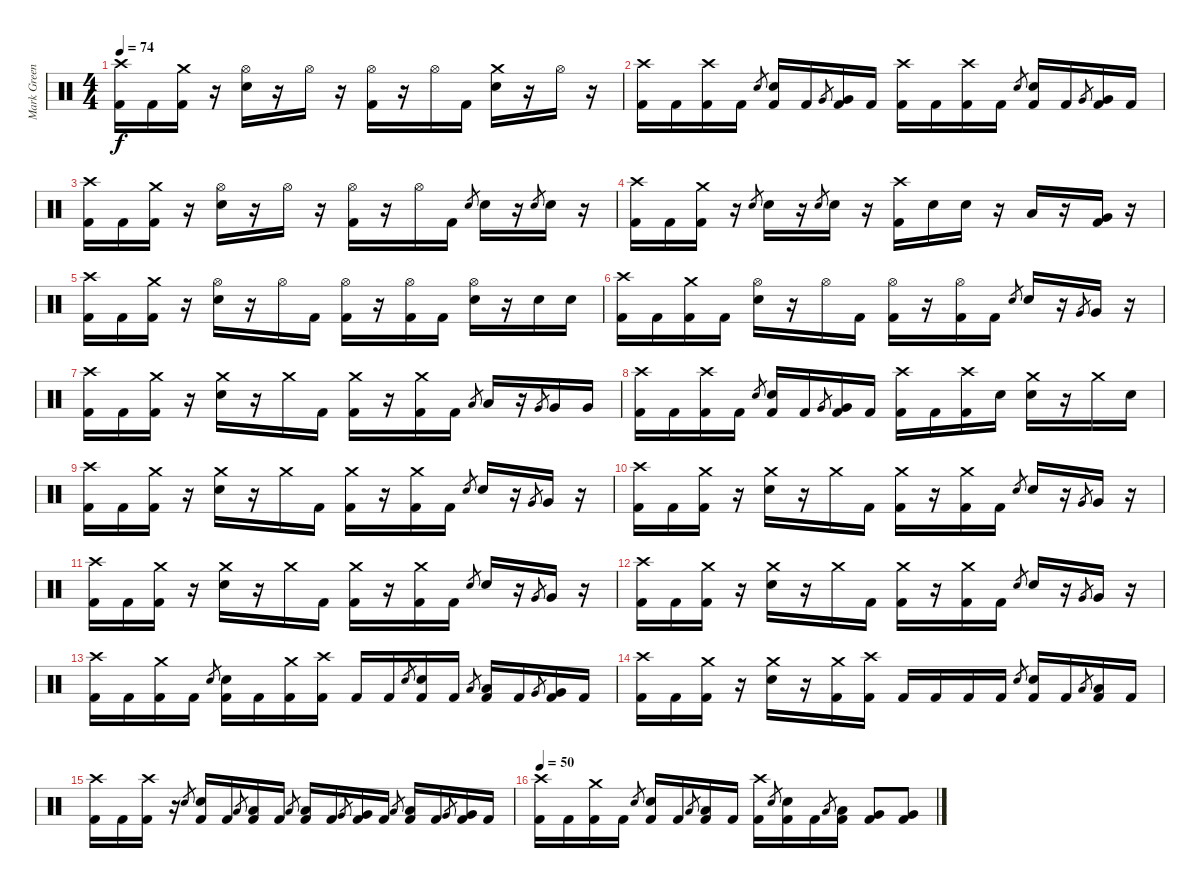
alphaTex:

\track ("Mark Greening" "Mark Green") {instrument percussion}
\staff {score}
\articulation defaults
\ts (4 4)
\tempo 74
\clef neutral
\ks c
("Crash high (hit)" "Kick (hit) 2").16{dy f} "Kick (hit) 2".16 ("Crash medium (hit)" "Kick (hit) 2").16 r.16 ("Hi-Hat (open)" "Snare (hit) 2").16 r.16 "Hi-Hat (open)".16 r.16 ("Hi-Hat (open)" "Kick (hit) 2").16 r.16 "Hi-Hat (open)".16 "Kick (hit) 2".16 ("Crash medium (hit)" "Snare (hit) 2").16 r.16 "Hi-Hat (open)".16 r.16 |
("Crash high (hit)" "Kick (hit) 2").16 "Kick (hit) 2".16 ("Crash high (hit)" "Kick (hit) 2").16 "Kick (hit) 2".16 "Snare (hit) 2".8{gr} ("Snare (hit) 2" "Kick (hit) 2").16 "Kick (hit) 2".16 "Very Low Tom (hit)".8{gr} ("Very Low Tom (hit)" "Kick (hit) 2").16 "Kick (hit) 2".16 ("Crash high (hit)" "Kick (hit) 2").16 "Kick (hit) 2".16 ("Crash high (hit)" "Kick (hit) 2").16 "Kick (hit) 2".16 "Snare (hit) 2".8{gr} ("Snare (hit) 2" "Kick (hit) 2").16 "Kick (hit) 2".16 "Very Low Tom (hit)".8{gr} ("Very Low Tom (hit)" "Kick (hit) 2").16 "Kick (hit) 2".16 |
("Crash high (hit)" "Kick (hit) 2").16 "Kick (hit) 2".16 ("Crash medium (hit)" "Kick (hit) 2").16 r.16 ("Hi-Hat (open)" "Snare (hit) 2").16 r.16 "Hi-Hat (open)".16 r.16 ("Hi-Hat (open)" "Kick (hit) 2").16 r.16 "Hi-Hat (open)".16 "Kick (hit) 2".16 "Snare (hit) 2".8{gr} "Snare (hit) 2".16 r.16 "Snare (hit) 2".8{gr} "Snare (hit) 2".16 r.16 |
("Crash high (hit)" "Kick (hit) 2").16 "Kick (hit) 2".16 ("Crash medium (hit)" "Kick (hit) 2").16 r.16 "Snare (hit) 2".8{gr} "Snare (hit) 2".16 r.16 "Snare (hit) 2".8{gr} "Snare (hit) 2".16 r.16 ("Crash high (hit)" "Kick (hit) 2").16 "Snare (hit) 2".16 "Snare (hit) 2".16 r.16 "Low Tom (hit)".16 r.16 ("Very Low Tom (hit)" "Kick (hit) 2").16 r.16 |
("Crash high (hit)" "Kick (hit) 2").16 "Kick (hit) 2".16 ("Crash medium (hit)" "Kick (hit) 2").16 r.16 ("Hi-Hat (open)" "Snare (hit) 2").16 r.16 "Hi-Hat (open)".16 "Kick (hit) 2".16 ("Hi-Hat (open)" "Kick (hit) 2").16 r.16 ("Hi-Hat (open)" "Kick (hit) 2").16 "Kick (hit) 2".16 ("Hi-Hat (open)" "Snare (hit) 2").16 r.16 "Snare (hit) 2".16 "Snare (hit) 2".16 |
("Crash high (hit)" "Kick (hit) 2").16 "Kick (hit) 2".16 ("Crash medium (hit)" "Kick (hit) 2").16 "Kick (hit) 2".16 ("Hi-Hat (open)" "Snare (hit) 2").16 r.16 "Hi-Hat (open)".16 "Kick (hit) 2".16 ("Hi-Hat (open)" "Kick (hit) 2").16 r.16 ("Hi-Hat (open)" "Kick (hit) 2").16 "Kick (hit) 2".16 "Snare (hit) 2".8{gr} "Snare (hit) 2".16 r.16 "Very Low Tom (hit)".8{gr} "Very Low Tom (hit)".16 r.16 |
("Crash high (hit)" "Kick (hit) 2").16 "Kick (hit) 2".16 ("Crash medium (hit)" "Kick (hit) 2").16 r.16 ("Crash medium (hit)" "Snare (hit) 2").16 r.16 "Crash medium (hit)".16 "Kick (hit) 2".16 ("Crash medium (hit)" "Kick (hit) 2").16 r.16 ("Crash medium (hit)" "Kick (hit) 2").16 "Kick (hit) 2".16 "Low Tom (hit)".8{gr} "Low Tom (hit)".16 r.16 "Very Low Tom (hit)".8{gr} "Very Low Tom (hit)".16 "Very Low Tom (hit)".16 |
("Crash high (hit)" "Kick (hit) 2").16 "Kick (hit) 2".16 ("Crash high (hit)" "Kick (hit) 2").16 "Kick (hit) 2".16 "Snare (hit) 2".8{gr} ("Snare (hit) 2" "Kick (hit) 2").16 "Kick (hit) 2".16 "Very Low Tom (hit)".8{gr} ("Very Low Tom (hit)" "Kick (hit) 2").16 "Kick (hit) 2".16 ("Crash high (hit)" "Kick (hit) 2").16 "Kick (hit) 2".16 ("Crash high (hit)" "Kick (hit) 2").16 "Snare (hit) 2".16 ("Crash medium (hit)" "Snare (hit) 2").16 r.16 "Crash medium (hit)".16 "Snare (hit) 2".16 |
("Crash high (hit)" "Kick (hit) 2").16 "Kick (hit) 2".16 ("Crash medium (hit)" "Kick (hit) 2").16 r.16 ("Crash medium (hit)" "Snare (hit) 2").16 r.16 "Crash medium (hit)".16 "Kick (hit) 2".16 ("Crash medium (hit)" "Kick (hit) 2").16 r.16 ("Crash medium (hit)" "Kick (hit) 2").16 "Kick (hit) 2".16 "Snare (hit) 2".8{gr} "Snare (hit) 2".16 r.16 "Very Low Tom (hit)".8{gr} "Very Low Tom (hit)".16 r.16 |
("Crash high (hit)" "Kick (hit) 2").16 "Kick (hit) 2".16 ("Crash medium (hit)" "Kick (hit) 2").16 r.16 ("Crash medium (hit)" "Snare (hit) 2").16 r.16 "Crash medium (hit)".16 "Kick (hit) 2".16 ("Crash medium (hit)" "Kick (hit) 2").16 r.16 ("Crash medium (hit)" "Kick (hit) 2").16 "Kick (hit) 2".16 "Snare (hit) 2".8{gr} "Snare (hit) 2".16 r.16 "Very Low Tom (hit)".8{gr} "Very Low Tom (hit)".16 r.16 |
("Crash high (hit)" "Kick (hit) 2").16 "Kick (hit) 2".16 ("Crash medium (hit)" "Kick (hit) 2").16 r.16 ("Crash medium (hit)" "Snare (hit) 2").16 r.16 "Crash medium (hit)".16 "Kick (hit) 2".16 ("Crash medium (hit)" "Kick (hit) 2").16 r.16 ("Crash medium (hit)" "Kick (hit) 2").16 "Kick (hit) 2".16 "Snare (hit) 2".8{gr} "Snare (hit) 2".16 r.16 "Very Low Tom (hit)".8{gr} "Very Low Tom (hit)".16 r.16 |
("Crash high (hit)" "Kick (hit) 2").16 "Kick (hit) 2".16 ("Crash medium (hit)" "Kick (hit) 2").16 r.16 ("Crash medium (hit)" "Snare (hit) 2").16 r.16 "Crash medium (hit)".16 "Kick (hit) 2".16 ("Crash medium (hit)" "Kick (hit) 2").16 r.16 ("Crash medium (hit)" "Kick (hit) 2").16 "Kick (hit) 2".16 "Snare (hit) 2".8{gr} "Snare (hit) 2".16 r.16 "Very Low Tom (hit)".8{gr} "Very Low Tom (hit)".16 r.16 |
("Crash high (hit)" "Kick (hit) 2").16 "Kick (hit) 2".16 ("Crash medium (hit)" "Kick (hit) 2").16 "Kick (hit) 2".16 "Snare (hit) 2".8{gr} ("Snare (hit) 2" "Kick (hit) 2").16 "Kick (hit) 2".16 ("Crash medium (hit)" "Kick (hit) 2").16 ("Crash high (hit)" "Kick (hit) 2").16 "Kick (hit) 2".16 "Kick (hit) 2".16 "Snare (hit) 2".8{gr} ("Snare (hit) 2" "Kick (hit) 2").16 "Kick (hit) 2".16 "Low Tom (hit)".8{gr} ("Low Tom (hit)" "Kick (hit) 2").16 "Kick (hit) 2".16 "Very Low Tom (hit)".8{gr} ("Very Low Tom (hit)" "Kick (hit) 2").16 "Kick (hit) 2".16 |
("Crash high (hit)" "Kick (hit) 2").16 "Kick (hit) 2".16 ("Crash medium (hit)" "Kick (hit) 2").16 r.16 ("Crash medium (hit)" "Snare (hit) 2").16 r.16 ("Crash medium (hit)" "Kick (hit) 2").16 ("Crash high (hit)" "Kick (hit) 2").16 "Kick (hit) 2".16 "Kick (hit) 2".16 "Kick (hit) 2".16 "Kick (hit) 2".16 "Snare (hit) 2".8{gr} ("Snare (hit) 2" "Kick (hit) 2").16 "Kick (hit) 2".16 "Low Tom (hit)".8{gr} ("Low Tom (hit)" "Kick (hit) 2").16 "Kick (hit) 2".16 |
("Crash high (hit)" "Kick (hit) 2").16 "Kick (hit) 2".16 ("Crash high (hit)" "Kick (hit) 2").16 r.16 "Snare (hit) 2".8{gr} ("Snare (hit) 2" "Kick (hit) 2").16 "Kick (hit) 2".16 "Low Tom (hit)".8{gr} ("Low Tom (hit)" "Kick (hit) 2").16 "Kick (hit) 2".16 "Low Tom (hit)".8{gr} ("Low Tom (hit)" "Kick (hit) 2").16 "Kick (hit) 2".16 "Very Low Tom (hit)".8{gr} ("Very Low Tom (hit)" "Kick (hit) 2").16 "Kick (hit) 2".16 "Low Tom (hit)".8{gr} ("Low Tom (hit)" "Kick (hit) 2").16 "Kick (hit) 2".16 "Very Low Tom (hit)".8{gr} ("Very Low Tom (hit)" "Kick (hit) 2").16 "Kick (hit) 2".16 |
\tempo 50
("Crash high (hit)" "Kick (hit) 2").16 "Kick (hit) 2".16 ("Crash medium (hit)" "Kick (hit) 2").16 "Kick (hit) 2".16 "Snare (hit) 2".8{gr} ("Snare (hit) 2" "Kick (hit) 2").16 "Kick (hit) 2".16 "Low Tom (hit)".8{gr} ("Low Tom (hit)" "Kick (hit) 2").16 "Kick (hit) 2".16 ("Crash high (hit)" "Kick (hit) 2").16 "Snare (hit) 2".8{gr} ("Snare (hit) 2" "Kick (hit) 2").16 "Kick (hit) 2".16 "Low Tom (hit)".8{gr} ("Low Tom (hit)" "Kick (hit) 2").16 ("Very Low Tom (hit)" "Kick (hit) 2").8 ("Very Low Tom (hit)" "Kick (hit) 2").8
